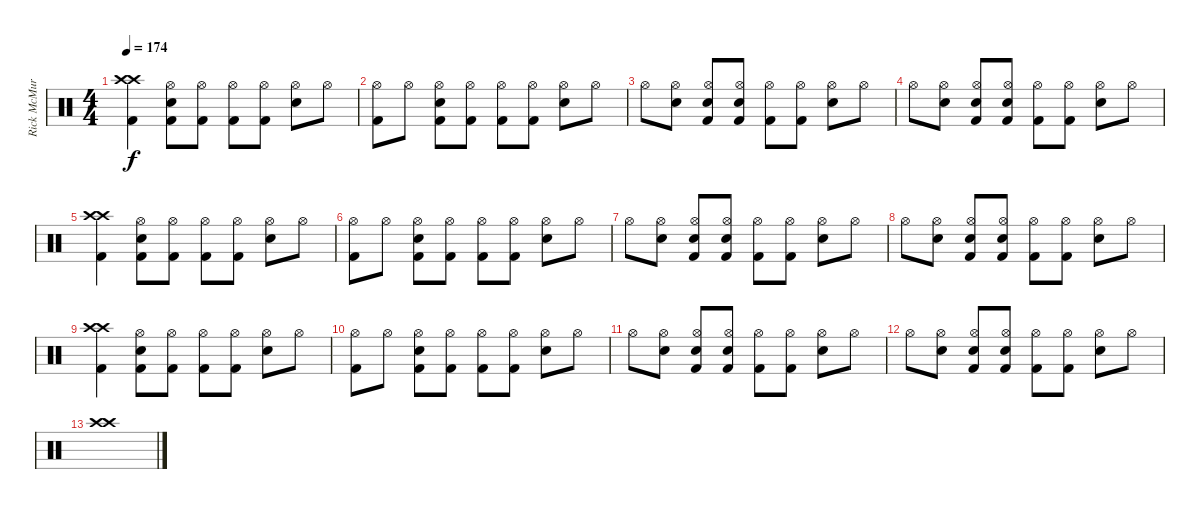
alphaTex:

\track ("Rick McMurray" "Rick McMur") {instrument percussion}
\staff {score}
\articulation defaults
\ts (4 4)
\tempo 174
\clef neutral
\ks c
("Crash high (hit)" "Crash high (hit)" "Kick (hit) 2").4{dy f} ("Hi-Hat (open)" "Snare (hit) 2" "Kick (hit) 2").8 ("Hi-Hat (open)" "Kick (hit) 2").8 ("Hi-Hat (open)" "Kick (hit) 2").8 ("Hi-Hat (open)" "Kick (hit) 2").8 ("Hi-Hat (open)" "Snare (hit) 2").8 "Hi-Hat (open)".8 |
("Hi-Hat (open)" "Kick (hit) 2").8 "Hi-Hat (open)".8 ("Hi-Hat (open)" "Snare (hit) 2" "Kick (hit) 2").8 ("Hi-Hat (open)" "Kick (hit) 2").8 ("Hi-Hat (open)" "Kick (hit) 2").8 ("Hi-Hat (open)" "Kick (hit) 2").8 ("Hi-Hat (open)" "Snare (hit) 2").8 "Hi-Hat (open)".8 |
"Hi-Hat (open)".8 ("Hi-Hat (open)" "Snare (hit) 2").8 ("Hi-Hat (open)" "Snare (hit) 2" "Kick (hit) 2").8 ("Hi-Hat (open)" "Snare (hit) 2" "Kick (hit) 2").8 ("Hi-Hat (open)" "Kick (hit) 2").8 ("Hi-Hat (open)" "Kick (hit) 2").8 ("Hi-Hat (open)" "Snare (hit) 2").8 "Hi-Hat (open)".8 |
"Hi-Hat (open)".8 ("Hi-Hat (open)" "Snare (hit) 2").8 ("Hi-Hat (open)" "Snare (hit) 2" "Kick (hit) 2").8 ("Hi-Hat (open)" "Snare (hit) 2" "Kick (hit) 2").8 ("Hi-Hat (open)" "Kick (hit) 2").8 ("Hi-Hat (open)" "Kick (hit) 2").8 ("Hi-Hat (open)" "Snare (hit) 2").8 "Hi-Hat (open)".8 |
("Crash high (hit)" "Crash high (hit)" "Kick (hit) 2").4 ("Hi-Hat (open)" "Snare (hit) 2" "Kick (hit) 2").8 ("Hi-Hat (open)" "Kick (hit) 2").8 ("Hi-Hat (open)" "Kick (hit) 2").8 ("Hi-Hat (open)" "Kick (hit) 2").8 ("Hi-Hat (open)" "Snare (hit) 2").8 "Hi-Hat (open)".8 |
("Hi-Hat (open)" "Kick (hit) 2").8 "Hi-Hat (open)".8 ("Hi-Hat (open)" "Snare (hit) 2" "Kick (hit) 2").8 ("Hi-Hat (open)" "Kick (hit) 2").8 ("Hi-Hat (open)" "Kick (hit) 2").8 ("Hi-Hat (open)" "Kick (hit) 2").8 ("Hi-Hat (open)" "Snare (hit) 2").8 "Hi-Hat (open)".8 |
"Hi-Hat (open)".8 ("Hi-Hat (open)" "Snare (hit) 2").8 ("Hi-Hat (open)" "Snare (hit) 2" "Kick (hit) 2").8 ("Hi-Hat (open)" "Snare (hit) 2" "Kick (hit) 2").8 ("Hi-Hat (open)" "Kick (hit) 2").8 ("Hi-Hat (open)" "Kick (hit) 2").8 ("Hi-Hat (open)" "Snare (hit) 2").8 "Hi-Hat (open)".8 |
"Hi-Hat (open)".8 ("Hi-Hat (open)" "Snare (hit) 2").8 ("Hi-Hat (open)" "Snare (hit) 2" "Kick (hit) 2").8 ("Hi-Hat (open)" "Snare (hit) 2" "Kick (hit) 2").8 ("Hi-Hat (open)" "Kick (hit) 2").8 ("Hi-Hat (open)" "Kick (hit) 2").8 ("Hi-Hat (open)" "Snare (hit) 2").8 "Hi-Hat (open)".8 |
("Crash high (hit)" "Crash high (hit)" "Kick (hit) 2").4 ("Hi-Hat (open)" "Snare (hit) 2" "Kick (hit) 2").8 ("Hi-Hat (open)" "Kick (hit) 2").8 ("Hi-Hat (open)" "Kick (hit) 2").8 ("Hi-Hat (open)" "Kick (hit) 2").8 ("Hi-Hat (open)" "Snare (hit) 2").8 "Hi-Hat (open)".8 |
("Hi-Hat (open)" "Kick (hit) 2").8 "Hi-Hat (open)".8 ("Hi-Hat (open)" "Snare (hit) 2" "Kick (hit) 2").8 ("Hi-Hat (open)" "Kick (hit) 2").8 ("Hi-Hat (open)" "Kick (hit) 2").8 ("Hi-Hat (open)" "Kick (hit) 2").8 ("Hi-Hat (open)" "Snare (hit) 2").8 "Hi-Hat (open)".8 |
"Hi-Hat (open)".8 ("Hi-Hat (open)" "Snare (hit) 2").8 ("Hi-Hat (open)" "Snare (hit) 2" "Kick (hit) 2").8 ("Hi-Hat (open)" "Snare (hit) 2" "Kick (hit) 2").8 ("Hi-Hat (open)" "Kick (hit) 2").8 ("Hi-Hat (open)" "Kick (hit) 2").8 ("Hi-Hat (open)" "Snare (hit) 2").8 "Hi-Hat (open)".8 |
"Hi-Hat (open)".8 ("Hi-Hat (open)" "Snare (hit) 2").8 ("Hi-Hat (open)" "Snare (hit) 2" "Kick (hit) 2").8 ("Hi-Hat (open)" "Snare (hit) 2" "Kick (hit) 2").8 ("Hi-Hat (open)" "Kick (hit) 2").8 ("Hi-Hat (open)" "Kick (hit) 2").8 ("Hi-Hat (open)" "Snare (hit) 2").8 "Hi-Hat (open)".8 |
("Crash high (hit)" "Crash high (hit)").1
